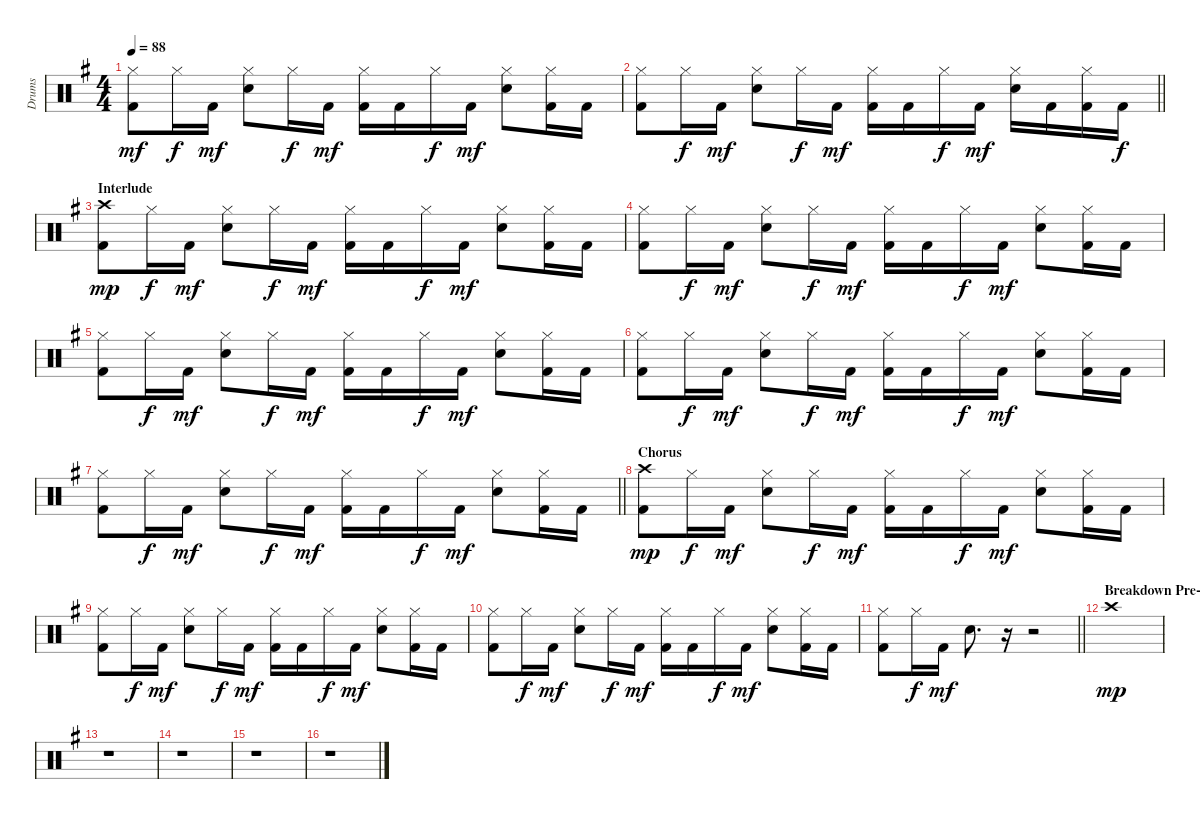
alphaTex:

\track ("Drums" "Drums") {instrument percussion}
\staff {score}
\articulation defaults
\ts (4 4)
\tempo 88
\clef neutral
\ks eminor
("Kick (hit) 2" "Hi-Hat (closed)").8{dy mf} "Hi-Hat (closed)".16{dy f} "Kick (hit) 2".16{dy mf} ("Snare (hit) 2" "Hi-Hat (closed)").8 "Hi-Hat (closed)".16{dy f} "Kick (hit) 2".16{dy mf} ("Kick (hit) 2" "Hi-Hat (closed)").16 "Kick (hit) 2".16 "Hi-Hat (closed)".16{dy f} "Kick (hit) 2".16{dy mf} ("Snare (hit) 2" "Hi-Hat (closed)").8 ("Kick (hit) 2" "Hi-Hat (closed)").16 "Kick (hit) 2".16 |
\barLineRight lightlight
("Kick (hit) 2" "Hi-Hat (closed)").8 "Hi-Hat (closed)".16{dy f} "Kick (hit) 2".16{dy mf} ("Snare (hit) 2" "Hi-Hat (closed)").8 "Hi-Hat (closed)".16{dy f} "Kick (hit) 2".16{dy mf} ("Kick (hit) 2" "Hi-Hat (closed)").16 "Kick (hit) 2".16 "Hi-Hat (closed)".16{dy f} "Kick (hit) 2".16{dy mf} ("Snare (hit) 2" "Hi-Hat (closed)").16 "Kick (hit) 2".16 ("Kick (hit) 2" "Hi-Hat (closed)").16 "Kick (hit) 2".16{dy f} |
\section ("" "Interlude")
("Kick (hit) 2" "Crash high (hit)").8{dy mp} "Hi-Hat (closed)".16{dy f} "Kick (hit) 2".16{dy mf} ("Snare (hit) 2" "Hi-Hat (closed)").8 "Hi-Hat (closed)".16{dy f} "Kick (hit) 2".16{dy mf} ("Kick (hit) 2" "Hi-Hat (closed)").16 "Kick (hit) 2".16 "Hi-Hat (closed)".16{dy f} "Kick (hit) 2".16{dy mf} ("Snare (hit) 2" "Hi-Hat (closed)").8 ("Kick (hit) 2" "Hi-Hat (closed)").16 "Kick (hit) 2".16 |
("Kick (hit) 2" "Hi-Hat (closed)").8 "Hi-Hat (closed)".16{dy f} "Kick (hit) 2".16{dy mf} ("Snare (hit) 2" "Hi-Hat (closed)").8 "Hi-Hat (closed)".16{dy f} "Kick (hit) 2".16{dy mf} ("Kick (hit) 2" "Hi-Hat (closed)").16 "Kick (hit) 2".16 "Hi-Hat (closed)".16{dy f} "Kick (hit) 2".16{dy mf} ("Snare (hit) 2" "Hi-Hat (closed)").8 ("Kick (hit) 2" "Hi-Hat (closed)").16 "Kick (hit) 2".16 |
("Kick (hit) 2" "Hi-Hat (closed)").8 "Hi-Hat (closed)".16{dy f} "Kick (hit) 2".16{dy mf} ("Snare (hit) 2" "Hi-Hat (closed)").8 "Hi-Hat (closed)".16{dy f} "Kick (hit) 2".16{dy mf} ("Kick (hit) 2" "Hi-Hat (closed)").16 "Kick (hit) 2".16 "Hi-Hat (closed)".16{dy f} "Kick (hit) 2".16{dy mf} ("Snare (hit) 2" "Hi-Hat (closed)").8 ("Kick (hit) 2" "Hi-Hat (closed)").16 "Kick (hit) 2".16 |
("Kick (hit) 2" "Hi-Hat (closed)").8 "Hi-Hat (closed)".16{dy f} "Kick (hit) 2".16{dy mf} ("Snare (hit) 2" "Hi-Hat (closed)").8 "Hi-Hat (closed)".16{dy f} "Kick (hit) 2".16{dy mf} ("Kick (hit) 2" "Hi-Hat (closed)").16 "Kick (hit) 2".16 "Hi-Hat (closed)".16{dy f} "Kick (hit) 2".16{dy mf} ("Snare (hit) 2" "Hi-Hat (closed)").8 ("Kick (hit) 2" "Hi-Hat (closed)").16 "Kick (hit) 2".16 |
\barLineRight lightlight
("Kick (hit) 2" "Hi-Hat (closed)").8 "Hi-Hat (closed)".16{dy f} "Kick (hit) 2".16{dy mf} ("Snare (hit) 2" "Hi-Hat (closed)").8 "Hi-Hat (closed)".16{dy f} "Kick (hit) 2".16{dy mf} ("Kick (hit) 2" "Hi-Hat (closed)").16 "Kick (hit) 2".16 "Hi-Hat (closed)".16{dy f} "Kick (hit) 2".16{dy mf} ("Snare (hit) 2" "Hi-Hat (closed)").8 ("Kick (hit) 2" "Hi-Hat (closed)").16 "Kick (hit) 2".16 |
\section ("" "Chorus")
("Kick (hit) 2" "Crash high (hit)").8{dy mp} "Hi-Hat (closed)".16{dy f} "Kick (hit) 2".16{dy mf} ("Snare (hit) 2" "Hi-Hat (closed)").8 "Hi-Hat (closed)".16{dy f} "Kick (hit) 2".16{dy mf} ("Kick (hit) 2" "Hi-Hat (closed)").16 "Kick (hit) 2".16 "Hi-Hat (closed)".16{dy f} "Kick (hit) 2".16{dy mf} ("Snare (hit) 2" "Hi-Hat (closed)").8 ("Kick (hit) 2" "Hi-Hat (closed)").16 "Kick (hit) 2".16 |
("Kick (hit) 2" "Hi-Hat (closed)").8 "Hi-Hat (closed)".16{dy f} "Kick (hit) 2".16{dy mf} ("Snare (hit) 2" "Hi-Hat (closed)").8 "Hi-Hat (closed)".16{dy f} "Kick (hit) 2".16{dy mf} ("Kick (hit) 2" "Hi-Hat (closed)").16 "Kick (hit) 2".16 "Hi-Hat (closed)".16{dy f} "Kick (hit) 2".16{dy mf} ("Snare (hit) 2" "Hi-Hat (closed)").8 ("Kick (hit) 2" "Hi-Hat (closed)").16 "Kick (hit) 2".16 |
("Kick (hit) 2" "Hi-Hat (closed)").8 "Hi-Hat (closed)".16{dy f} "Kick (hit) 2".16{dy mf} ("Snare (hit) 2" "Hi-Hat (closed)").8 "Hi-Hat (closed)".16{dy f} "Kick (hit) 2".16{dy mf} ("Kick (hit) 2" "Hi-Hat (closed)").16 "Kick (hit) 2".16 "Hi-Hat (closed)".16{dy f} "Kick (hit) 2".16{dy mf} ("Snare (hit) 2" "Hi-Hat (closed)").8 ("Kick (hit) 2" "Hi-Hat (closed)").16 "Kick (hit) 2".16 |
\barLineRight lightlight
("Kick (hit) 2" "Hi-Hat (closed)").8 "Hi-Hat (closed)".16{dy f} "Kick (hit) 2".16{dy mf} "Snare (hit) 2".8{d} r.16 r.2 |
\section ("" "Breakdown Pre-Chorus")
"Crash high (hit)".1{dy mp} |
r.1 |
r.1 |
r.1 |
r.1
